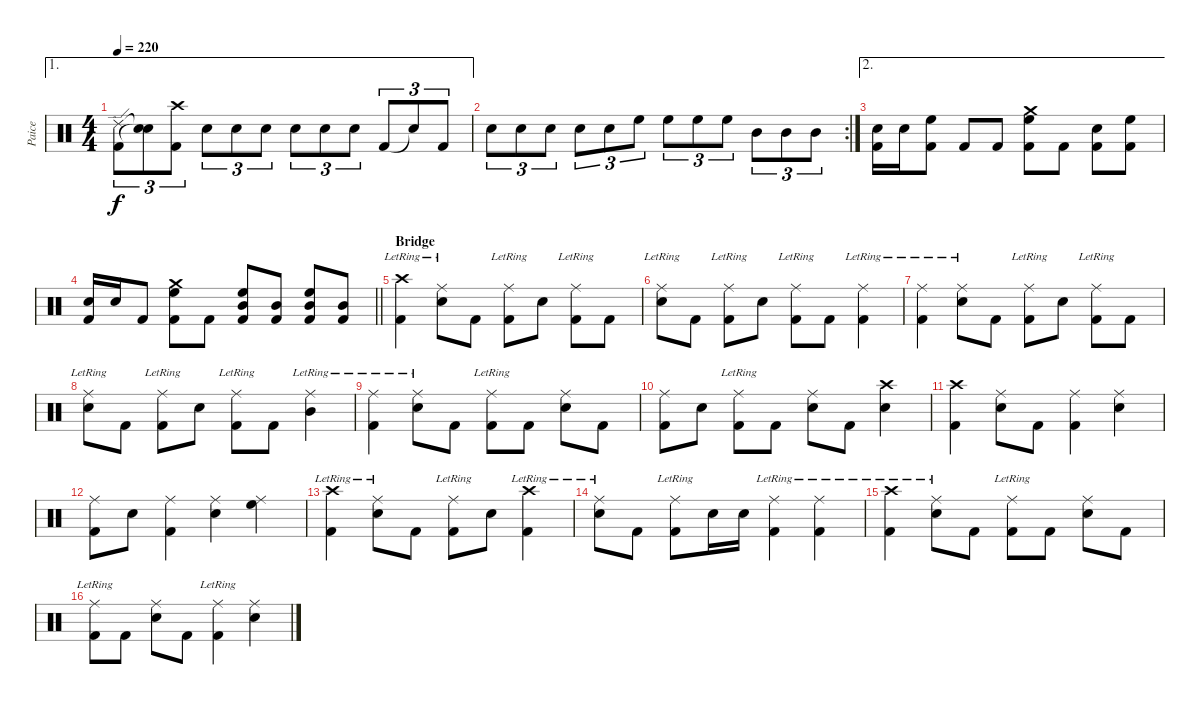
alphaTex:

\track ("Paice" "Paice") {instrument percussion}
\staff {score}
\articulation defaults
\ae 1
\ts (4 4)
\tempo 220
\clef neutral
\ks c
("Ride (edge) 2" "Kick (hit) 2").8{tu (3 2) dy f} ("Snare (hit)"{t} "Snare (hit)"{t}).8{tu (3 2)} ("Crash high (hit)" "Kick (hit) 2").8{tu (3 2)} "Snare (hit) 2".8{tu (3 2)} "Snare (hit) 2".8{tu (3 2)} "Snare (hit) 2".8{tu (3 2)} "Snare (hit) 2".8{tu (3 2)} "Snare (hit) 2".8{tu (3 2)} "Snare (hit) 2".8{tu (3 2)} "Kick (hit) 2".8{tu (3 2)} "Snare (hit)"{t}.8{tu (3 2)} "Kick (hit) 2".8{tu (3 2)} |
\rc 2 "Snare (hit) 2".8{tu (3 2)} "Snare (hit) 2".8{tu (3 2)} "Snare (hit) 2".8{tu (3 2)} "Snare (hit) 2".8{tu (3 2)} "Snare (hit) 2".8{tu (3 2)} "High Floor Tom (hit)".8{tu (3 2)} "High Floor Tom (hit)".8{tu (3 2)} "High Floor Tom (hit)".8{tu (3 2)} "High Floor Tom (hit)".8{tu (3 2)} "Mid Tom (hit)".8{tu (3 2)} "Mid Tom (hit)".8{tu (3 2)} "Mid Tom (hit)".8{tu (3 2)}
|
\ae 2
("Snare (hit) 2" "Kick (hit) 2").16 "Snare (hit) 2".16 ("High Floor Tom (hit)" "Kick (hit) 2").8 "Kick (hit) 2".8 "Kick (hit) 2".8 ("Crash medium (hit)" "High Floor Tom (hit)" "Kick (hit) 2").8 "Kick (hit) 2".8 ("Snare (hit) 2" "Kick (hit) 2").8 ("High Floor Tom (hit)" "Kick (hit) 2").8 |
\barLineRight lightlight
("Snare (hit) 2" "Kick (hit) 2").16 "Snare (hit) 2".16 "Kick (hit) 2".8 ("Crash medium (hit)" "High Floor Tom (hit)" "Kick (hit) 2").8 "Kick (hit) 2".8 ("High Floor Tom (hit)" "Mid Tom (hit)" "Kick (hit) 2").8 ("Mid Tom (hit)" "Kick (hit) 2").8 ("High Floor Tom (hit)" "Mid Tom (hit)" "Kick (hit) 2").8 ("Mid Tom (hit)" "Kick (hit) 2").8 |
\section ("" "Bridge")
("Crash high (hit)"{lr} "Kick (hit) 2").4 ("Ride (middle)"{lr} "Snare (hit) 2").8 "Kick (hit) 2".8 ("Ride (middle)"{lr} "Kick (hit) 2").8 "Snare (hit) 2".8 ("Ride (middle)"{lr} "Kick (hit) 2").8 "Kick (hit) 2".8 |
("Ride (middle)"{lr} "Snare (hit) 2").8 "Kick (hit) 2".8 ("Ride (middle)"{lr} "Kick (hit) 2").8 "Snare (hit) 2".8 ("Ride (middle)"{lr} "Kick (hit) 2").8 "Kick (hit) 2".8 ("Ride (middle)"{lr} "Kick (hit) 2").4 |
("Ride (middle)"{lr} "Kick (hit) 2").4 ("Ride (middle)"{lr} "Snare (hit) 2").8 "Kick (hit) 2".8 ("Ride (middle)"{lr} "Kick (hit) 2").8 "Snare (hit) 2".8 ("Ride (middle)"{lr} "Kick (hit) 2").8 "Kick (hit) 2".8 |
("Ride (middle)"{lr} "Snare (hit) 2").8 "Kick (hit) 2".8 ("Ride (middle)"{lr} "Kick (hit) 2").8 "Snare (hit) 2".8 ("Ride (middle)"{lr} "Kick (hit) 2").8 "Kick (hit) 2".8 ("Ride (middle)"{lr} "Mid Tom (hit)").4 |
("Ride (middle)"{lr} "Kick (hit) 2").4 ("Ride (middle)"{lr} "Snare (hit) 2").8 "Kick (hit) 2".8 ("Ride (middle)"{lr} "Kick (hit) 2").8 "Kick (hit) 2".8 ("Ride (middle)" "Snare (hit) 2").8 "Kick (hit) 2".8 |
("Ride (middle)" "Kick (hit) 2").8 "Snare (hit) 2".8 ("Ride (middle)"{lr} "Kick (hit) 2").8 "Kick (hit) 2".8 ("Ride (middle)" "Snare (hit) 2").8 "Kick (hit) 2".8 ("Crash high (hit)" "Snare (hit) 2").4 |
("Crash high (hit)" "Kick (hit) 2").4 ("Ride (middle)" "Snare (hit) 2").8 "Kick (hit) 2".8 ("Ride (middle)" "Kick (hit) 2").4 ("Ride (middle)" "Snare (hit) 2").4 |
("Ride (middle)" "Kick (hit) 2").8 "Snare (hit) 2".8 ("Ride (middle)" "Kick (hit) 2").4 ("Ride (middle)" "Snare (hit) 2").4 ("Ride (middle)" "High Floor Tom (hit)").4 |
("Crash high (hit)"{lr} "Kick (hit) 2").4 ("Ride (middle)"{lr} "Snare (hit) 2").8 "Kick (hit) 2".8 ("Ride (middle)"{lr} "Kick (hit) 2").8 "Snare (hit) 2".8 ("Crash high (hit)"{lr} "Kick (hit) 2").4 |
("Ride (middle)"{lr} "Snare (hit) 2").8 "Kick (hit) 2".8 ("Ride (middle)"{lr} "Kick (hit) 2").8 "Snare (hit) 2".16 "Snare (hit) 2".16 ("Ride (middle)"{lr} "Kick (hit) 2").4 ("Ride (middle)"{lr} "Kick (hit) 2").4 |
("Crash high (hit)"{lr} "Kick (hit) 2").4 ("Ride (middle)"{lr} "Snare (hit) 2").8 "Kick (hit) 2".8 ("Ride (middle)"{lr} "Kick (hit) 2").8 "Kick (hit) 2".8 ("Ride (middle)" "Snare (hit) 2").8 "Kick (hit) 2".8 |
("Ride (middle)"{lr} "Kick (hit) 2").8 "Kick (hit) 2".8 ("Ride (middle)" "Snare (hit) 2").8 "Kick (hit) 2".8 ("Ride (middle)"{lr} "Kick (hit) 2").4 ("Ride (middle)" "Snare (hit) 2").4
